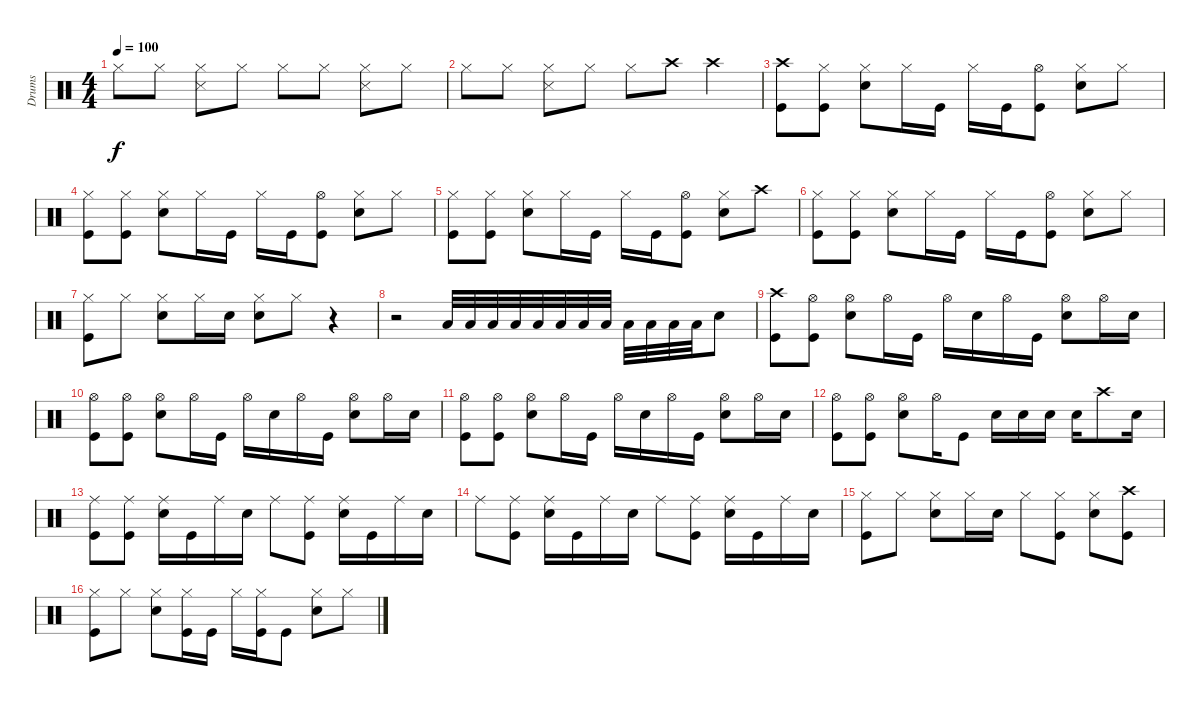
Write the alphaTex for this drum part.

\track ("Drums" "Drums") {instrument percussion}
\staff {score}
\articulation defaults
\ts (4 4)
\tempo 100
\clef neutral
\ks c "Hi-Hat (closed)".8{dy f} "Hi-Hat (closed)".8
("Hi-Hat (closed)" "Snare (side stick) 3").8 "Hi-Hat (closed)".8 "Hi-Hat (closed)".8 "Hi-Hat (closed)".8 ("Hi-Hat (closed)" "Snare (side stick) 3").8 "Hi-Hat (closed)".8 |
"Hi-Hat (closed)".8 "Hi-Hat (closed)".8 ("Hi-Hat (closed)" "Snare (side stick) 3").8 "Hi-Hat (closed)".8 "Hi-Hat (closed)".8 "Crash high (hit)".8 "Crash high (hit)".4 |
("Crash high (hit)" "Kick (hit)").8 ("Hi-Hat (closed)" "Kick (hit)").8 ("Hi-Hat (closed)" "Snare (hit) 2").8 "Hi-Hat (closed)".16 "Kick (hit)".16 "Hi-Hat (closed)".16 "Kick (hit)".16 ("Hi-Hat (open)" "Kick (hit)").8 ("Hi-Hat (closed)" "Snare (hit) 2").8 "Hi-Hat (closed)".8 |
("Hi-Hat (closed)" "Kick (hit)").8 ("Hi-Hat (closed)" "Kick (hit)").8 ("Hi-Hat (closed)" "Snare (hit) 2").8 "Hi-Hat (closed)".16 "Kick (hit)".16 "Hi-Hat (closed)".16 "Kick (hit)".16 ("Hi-Hat (open)" "Kick (hit)").8 ("Hi-Hat (closed)" "Snare (hit) 2").8 "Hi-Hat (closed)".8 |
("Hi-Hat (closed)" "Kick (hit)").8 ("Hi-Hat (closed)" "Kick (hit)").8 ("Hi-Hat (closed)" "Snare (hit) 2").8 "Hi-Hat (closed)".16 "Kick (hit)".16 "Hi-Hat (closed)".16 "Kick (hit)".16 ("Hi-Hat (open)" "Kick (hit)").8 ("Hi-Hat (closed)" "Snare (hit) 2").8 "Crash high (hit)".8 |
("Hi-Hat (closed)" "Kick (hit)").8 ("Hi-Hat (closed)" "Kick (hit)").8 ("Hi-Hat (closed)" "Snare (hit) 2").8 "Hi-Hat (closed)".16 "Kick (hit)".16 "Hi-Hat (closed)".16 "Kick (hit)".16 ("Hi-Hat (open)" "Kick (hit)").8 ("Hi-Hat (closed)" "Snare (hit) 2").8 "Hi-Hat (closed)".8 |
("Hi-Hat (closed)" "Kick (hit)").8 "Hi-Hat (closed)".8 ("Hi-Hat (closed)" "Snare (hit) 2").8 "Hi-Hat (closed)".16 "Snare (hit) 2".16 ("Hi-Hat (closed)" "Snare (hit) 2").8 "Hi-Hat (closed)".8 r.4 |
r.2 "Low Floor Tom (hit)".32 "Low Floor Tom (hit)".32 "Low Floor Tom (hit)".32 "Low Floor Tom (hit)".32 "Low Floor Tom (hit)".32 "Low Floor Tom (hit)".32 "Low Floor Tom (hit)".32 "Low Floor Tom (hit)".32 "Low Floor Tom (hit)".32 "Low Floor Tom (hit)".32 "Low Floor Tom (hit)".32 "Low Floor Tom (hit)".32 "Snare (hit) 2".8 |
("Crash high (hit)" "Kick (hit)").8 ("Hi-Hat (open)" "Kick (hit)").8 ("Hi-Hat (open)" "Snare (hit) 2").8 "Hi-Hat (open)".16 "Kick (hit)".16 "Hi-Hat (open)".16 "Snare (hit) 2".16 "Hi-Hat (open)".16 "Kick (hit)".16 ("Hi-Hat (open)" "Snare (hit) 2").8 "Hi-Hat (open)".16 "Snare (hit) 2".16 |
("Hi-Hat (open)" "Kick (hit)").8 ("Hi-Hat (open)" "Kick (hit)").8 ("Hi-Hat (open)" "Snare (hit) 2").8 "Hi-Hat (open)".16 "Kick (hit)".16 "Hi-Hat (open)".16 "Snare (hit) 2".16 "Hi-Hat (open)".16 "Kick (hit)".16 ("Hi-Hat (open)" "Snare (hit) 2").8 "Hi-Hat (open)".16 "Snare (hit) 2".16 |
("Hi-Hat (open)" "Kick (hit)").8 ("Hi-Hat (open)" "Kick (hit)").8 ("Hi-Hat (open)" "Snare (hit) 2").8 "Hi-Hat (open)".16 "Kick (hit)".16 "Hi-Hat (open)".16 "Snare (hit) 2".16 "Hi-Hat (open)".16 "Kick (hit)".16 ("Hi-Hat (open)" "Snare (hit) 2").8 "Hi-Hat (open)".16 "Snare (hit) 2".16 |
("Hi-Hat (open)" "Kick (hit)").8 ("Hi-Hat (open)" "Kick (hit)").8 ("Hi-Hat (open)" "Snare (hit) 2").8 "Hi-Hat (open)".16 "Kick (hit)".8 "Snare (hit) 2".16 "Snare (hit) 2".16 "Snare (hit) 2".16 "Snare (hit) 2".16 "Crash high (hit)".8 "Snare (hit) 2".16 |
("Ride (middle)" "Kick (hit)").8 ("Ride (middle)" "Kick (hit)").8 ("Ride (middle)" "Snare (hit) 2").16 "Kick (hit)".16 "Ride (middle)".16 "Snare (hit) 2".16 "Ride (middle)".8 ("Ride (middle)" "Kick (hit)").8 ("Ride (middle)" "Snare (hit) 2").16 "Kick (hit)".16 "Ride (middle)".16 "Snare (hit) 2".16 |
"Ride (middle)".8 ("Ride (middle)" "Kick (hit)").8 ("Ride (middle)" "Snare (hit) 2").16 "Kick (hit)".16 "Ride (middle)".16 "Snare (hit) 2".16 "Ride (middle)".8 ("Ride (middle)" "Kick (hit)").8 ("Ride (middle)" "Snare (hit) 2").16 "Kick (hit)".16 "Ride (middle)".16 "Snare (hit) 2".16 |
("Hi-Hat (closed)" "Kick (hit)").8 "Hi-Hat (closed)".8 ("Hi-Hat (closed)" "Snare (hit) 2").8 "Hi-Hat (closed)".16 "Snare (hit) 2".16 "Hi-Hat (closed)".8 ("Hi-Hat (closed)" "Kick (hit)").8 ("Hi-Hat (closed)" "Snare (hit) 2").8 ("Crash high (hit)" "Kick (hit)").8 |
("Hi-Hat (closed)" "Kick (hit)").8 "Hi-Hat (closed)".8 ("Hi-Hat (closed)" "Snare (hit) 2").8 ("Hi-Hat (closed)" "Kick (hit)").16 "Kick (hit)".16 "Hi-Hat (closed)".16 ("Hi-Hat (closed)" "Kick (hit)").16 "Kick (hit)".8 ("Hi-Hat (closed)" "Snare (hit) 2").8 "Hi-Hat (closed)".8
